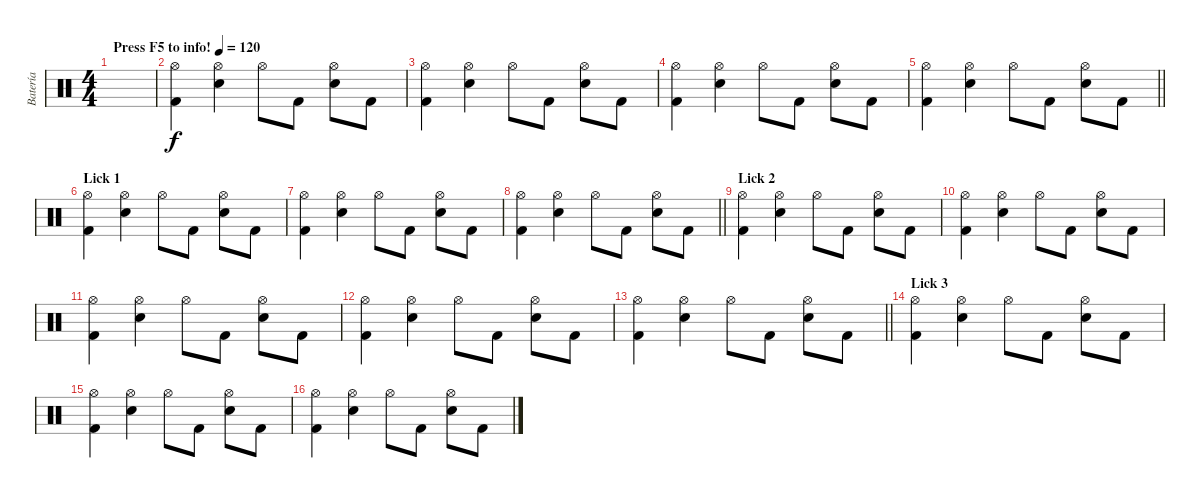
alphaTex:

\track ("Batería" "Batería") {instrument percussion}
\staff {score}
\articulation defaults
\ts (4 4)
\tempo (120 "Press F5 to info!")
\clef neutral
\ks c
|
("Hi-Hat (open)" "Kick (hit) 2").4 ("Hi-Hat (open)" "Electric Snare (hit)").4 "Hi-Hat (open)".8 "Kick (hit) 2".8 ("Hi-Hat (open)" "Electric Snare (hit)").8 "Kick (hit) 2".8 |
("Hi-Hat (open)" "Kick (hit) 2").4 ("Hi-Hat (open)" "Electric Snare (hit)").4 "Hi-Hat (open)".8 "Kick (hit) 2".8 ("Hi-Hat (open)" "Electric Snare (hit)").8 "Kick (hit) 2".8 |
("Hi-Hat (open)" "Kick (hit) 2").4 ("Hi-Hat (open)" "Electric Snare (hit)").4 "Hi-Hat (open)".8 "Kick (hit) 2".8 ("Hi-Hat (open)" "Electric Snare (hit)").8 "Kick (hit) 2".8 |
\barLineRight lightlight
("Hi-Hat (open)" "Kick (hit) 2").4 ("Hi-Hat (open)" "Electric Snare (hit)").4 "Hi-Hat (open)".8 "Kick (hit) 2".8 ("Hi-Hat (open)" "Electric Snare (hit)").8 "Kick (hit) 2".8 |
\section ("" "Lick 1")
("Hi-Hat (open)" "Kick (hit) 2").4 ("Hi-Hat (open)" "Electric Snare (hit)").4 "Hi-Hat (open)".8 "Kick (hit) 2".8 ("Hi-Hat (open)" "Electric Snare (hit)").8 "Kick (hit) 2".8 |
("Hi-Hat (open)" "Kick (hit) 2").4 ("Hi-Hat (open)" "Electric Snare (hit)").4 "Hi-Hat (open)".8 "Kick (hit) 2".8 ("Hi-Hat (open)" "Electric Snare (hit)").8 "Kick (hit) 2".8 |
\barLineRight lightlight
("Hi-Hat (open)" "Kick (hit) 2").4 ("Hi-Hat (open)" "Electric Snare (hit)").4 "Hi-Hat (open)".8 "Kick (hit) 2".8 ("Hi-Hat (open)" "Electric Snare (hit)").8 "Kick (hit) 2".8 |
\section ("" "Lick 2 ")
("Hi-Hat (open)" "Kick (hit) 2").4 ("Hi-Hat (open)" "Electric Snare (hit)").4 "Hi-Hat (open)".8 "Kick (hit) 2".8 ("Hi-Hat (open)" "Electric Snare (hit)").8 "Kick (hit) 2".8 |
("Hi-Hat (open)" "Kick (hit) 2").4 ("Hi-Hat (open)" "Electric Snare (hit)").4 "Hi-Hat (open)".8 "Kick (hit) 2".8 ("Hi-Hat (open)" "Electric Snare (hit)").8 "Kick (hit) 2".8 |
("Hi-Hat (open)" "Kick (hit) 2").4 ("Hi-Hat (open)" "Electric Snare (hit)").4 "Hi-Hat (open)".8 "Kick (hit) 2".8 ("Hi-Hat (open)" "Electric Snare (hit)").8 "Kick (hit) 2".8 |
("Hi-Hat (open)" "Kick (hit) 2").4 ("Hi-Hat (open)" "Electric Snare (hit)").4 "Hi-Hat (open)".8 "Kick (hit) 2".8 ("Hi-Hat (open)" "Electric Snare (hit)").8 "Kick (hit) 2".8 |
\barLineRight lightlight
("Hi-Hat (open)" "Kick (hit) 2").4 ("Hi-Hat (open)" "Electric Snare (hit)").4 "Hi-Hat (open)".8 "Kick (hit) 2".8 ("Hi-Hat (open)" "Electric Snare (hit)").8 "Kick (hit) 2".8 |
\section ("" "Lick 3")
("Hi-Hat (open)" "Kick (hit) 2").4 ("Hi-Hat (open)" "Electric Snare (hit)").4 "Hi-Hat (open)".8 "Kick (hit) 2".8 ("Hi-Hat (open)" "Electric Snare (hit)").8 "Kick (hit) 2".8 |
("Hi-Hat (open)" "Kick (hit) 2").4 ("Hi-Hat (open)" "Electric Snare (hit)").4 "Hi-Hat (open)".8 "Kick (hit) 2".8 ("Hi-Hat (open)" "Electric Snare (hit)").8 "Kick (hit) 2".8 |
("Hi-Hat (open)" "Kick (hit) 2").4 ("Hi-Hat (open)" "Electric Snare (hit)").4 "Hi-Hat (open)".8 "Kick (hit) 2".8 ("Hi-Hat (open)" "Electric Snare (hit)").8 "Kick (hit) 2".8
